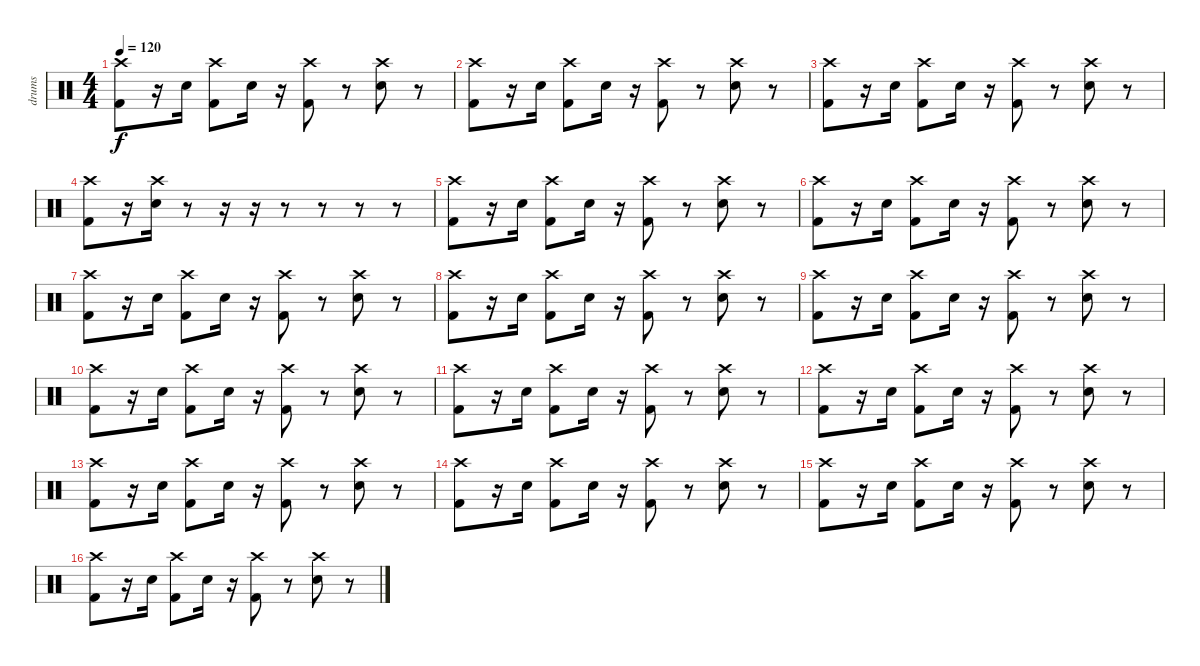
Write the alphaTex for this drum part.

\track ("drums" "drums") {instrument percussion}
\staff {score}
\articulation defaults
\ts (4 4)
\tempo 120
\clef neutral
\ks c
("Crash high (hit)" "Kick (hit) 2").8{dy f} r.16 "Snare (hit) 2".16 ("Crash high (hit)" "Kick (hit) 2").8 "Snare (hit) 2".16 r.16 ("Crash high (hit)" "Kick (hit) 2").8 r.8 ("Crash high (hit)" "Snare (hit) 2").8 r.8 |
("Crash high (hit)" "Kick (hit) 2").8 r.16 "Snare (hit) 2".16 ("Crash high (hit)" "Kick (hit) 2").8 "Snare (hit) 2".16 r.16 ("Crash high (hit)" "Kick (hit) 2").8 r.8 ("Crash high (hit)" "Snare (hit) 2").8 r.8 |
("Crash high (hit)" "Kick (hit) 2").8 r.16 "Snare (hit) 2".16 ("Crash high (hit)" "Kick (hit) 2").8 "Snare (hit) 2".16 r.16 ("Crash high (hit)" "Kick (hit) 2").8 r.8 ("Crash high (hit)" "Snare (hit) 2").8 r.8 |
("Crash high (hit)" "Kick (hit) 2").8 r.16 ("Crash high (hit)" "Snare (hit) 2").16 r.8 r.16 r.16 r.8 r.8 r.8 r.8 |
("Crash high (hit)" "Kick (hit) 2").8 r.16 "Snare (hit) 2".16 ("Crash high (hit)" "Kick (hit) 2").8 "Snare (hit) 2".16 r.16 ("Crash high (hit)" "Kick (hit) 2").8 r.8 ("Crash high (hit)" "Snare (hit) 2").8 r.8 |
("Crash high (hit)" "Kick (hit) 2").8 r.16 "Snare (hit) 2".16 ("Crash high (hit)" "Kick (hit) 2").8 "Snare (hit) 2".16 r.16 ("Crash high (hit)" "Kick (hit) 2").8 r.8 ("Crash high (hit)" "Snare (hit) 2").8 r.8 |
("Crash high (hit)" "Kick (hit) 2").8 r.16 "Snare (hit) 2".16 ("Crash high (hit)" "Kick (hit) 2").8 "Snare (hit) 2".16 r.16 ("Crash high (hit)" "Kick (hit) 2").8 r.8 ("Crash high (hit)" "Snare (hit) 2").8 r.8 |
("Crash high (hit)" "Kick (hit) 2").8 r.16 "Snare (hit) 2".16 ("Crash high (hit)" "Kick (hit) 2").8 "Snare (hit) 2".16 r.16 ("Crash high (hit)" "Kick (hit) 2").8 r.8 ("Crash high (hit)" "Snare (hit) 2").8 r.8 |
("Crash high (hit)" "Kick (hit) 2").8 r.16 "Snare (hit) 2".16 ("Crash high (hit)" "Kick (hit) 2").8 "Snare (hit) 2".16 r.16 ("Crash high (hit)" "Kick (hit) 2").8 r.8 ("Crash high (hit)" "Snare (hit) 2").8 r.8 |
("Crash high (hit)" "Kick (hit) 2").8 r.16 "Snare (hit) 2".16 ("Crash high (hit)" "Kick (hit) 2").8 "Snare (hit) 2".16 r.16 ("Crash high (hit)" "Kick (hit) 2").8 r.8 ("Crash high (hit)" "Snare (hit) 2").8 r.8 |
("Crash high (hit)" "Kick (hit) 2").8 r.16 "Snare (hit) 2".16 ("Crash high (hit)" "Kick (hit) 2").8 "Snare (hit) 2".16 r.16 ("Crash high (hit)" "Kick (hit) 2").8 r.8 ("Crash high (hit)" "Snare (hit) 2").8 r.8 |
("Crash high (hit)" "Kick (hit) 2").8 r.16 "Snare (hit) 2".16 ("Crash high (hit)" "Kick (hit) 2").8 "Snare (hit) 2".16 r.16 ("Crash high (hit)" "Kick (hit) 2").8 r.8 ("Crash high (hit)" "Snare (hit) 2").8 r.8 |
("Crash high (hit)" "Kick (hit) 2").8 r.16 "Snare (hit) 2".16 ("Crash high (hit)" "Kick (hit) 2").8 "Snare (hit) 2".16 r.16 ("Crash high (hit)" "Kick (hit) 2").8 r.8 ("Crash high (hit)" "Snare (hit) 2").8 r.8 |
("Crash high (hit)" "Kick (hit) 2").8 r.16 "Snare (hit) 2".16 ("Crash high (hit)" "Kick (hit) 2").8 "Snare (hit) 2".16 r.16 ("Crash high (hit)" "Kick (hit) 2").8 r.8 ("Crash high (hit)" "Snare (hit) 2").8 r.8 |
("Crash high (hit)" "Kick (hit) 2").8 r.16 "Snare (hit) 2".16 ("Crash high (hit)" "Kick (hit) 2").8 "Snare (hit) 2".16 r.16 ("Crash high (hit)" "Kick (hit) 2").8 r.8 ("Crash high (hit)" "Snare (hit) 2").8 r.8 |
("Crash high (hit)" "Kick (hit) 2").8 r.16 "Snare (hit) 2".16 ("Crash high (hit)" "Kick (hit) 2").8 "Snare (hit) 2".16 r.16 ("Crash high (hit)" "Kick (hit) 2").8 r.8 ("Crash high (hit)" "Snare (hit) 2").8 r.8
